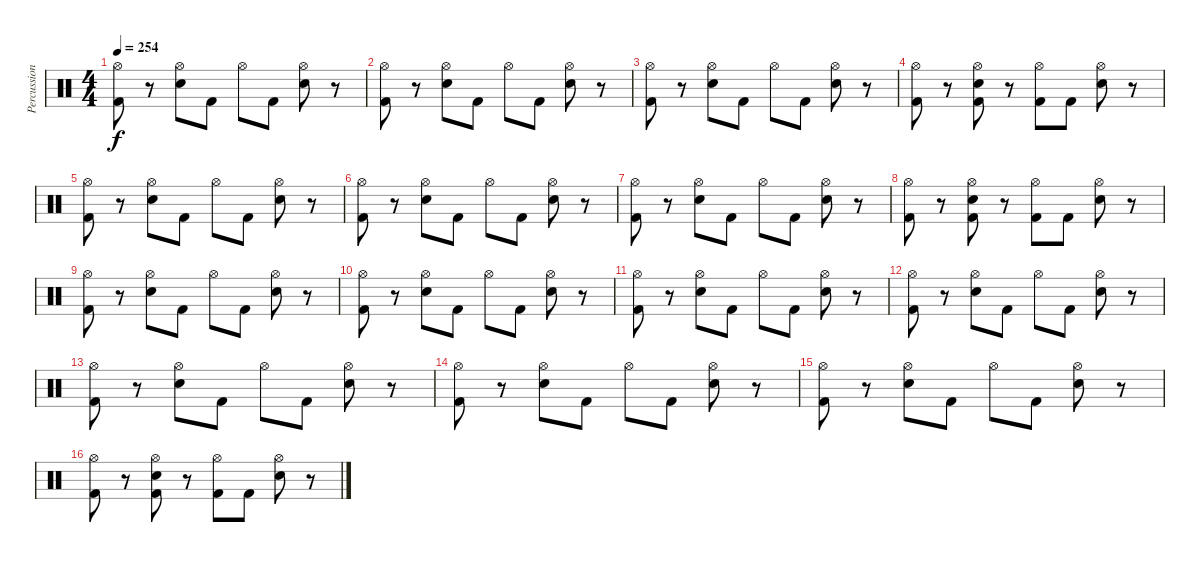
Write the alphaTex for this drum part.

\track ("Percussion" "Percussion") {instrument percussion}
\staff {score}
\articulation defaults
\ts (4 4)
\tempo 254
\clef neutral
\ks c
("Hi-Hat (open)" "Kick (hit) 2").8{dy f} r.8 ("Hi-Hat (open)" "Electric Snare (hit)").8 "Kick (hit) 2".8 "Hi-Hat (open)".8 "Kick (hit) 2".8 ("Hi-Hat (open)" "Electric Snare (hit)").8 r.8 |
("Hi-Hat (open)" "Kick (hit) 2").8 r.8 ("Hi-Hat (open)" "Electric Snare (hit)").8 "Kick (hit) 2".8 "Hi-Hat (open)".8 "Kick (hit) 2".8 ("Hi-Hat (open)" "Electric Snare (hit)").8 r.8 |
("Hi-Hat (open)" "Kick (hit) 2").8 r.8 ("Hi-Hat (open)" "Electric Snare (hit)").8 "Kick (hit) 2".8 "Hi-Hat (open)".8 "Kick (hit) 2".8 ("Hi-Hat (open)" "Electric Snare (hit)").8 r.8 |
("Hi-Hat (open)" "Kick (hit) 2").8 r.8 ("Hi-Hat (open)" "Electric Snare (hit)" "Kick (hit) 2").8 r.8 ("Hi-Hat (open)" "Kick (hit) 2").8 "Kick (hit) 2".8 ("Hi-Hat (open)" "Electric Snare (hit)").8 r.8 |
("Hi-Hat (open)" "Kick (hit) 2").8 r.8 ("Hi-Hat (open)" "Electric Snare (hit)").8 "Kick (hit) 2".8 "Hi-Hat (open)".8 "Kick (hit) 2".8 ("Hi-Hat (open)" "Electric Snare (hit)").8 r.8 |
("Hi-Hat (open)" "Kick (hit) 2").8 r.8 ("Hi-Hat (open)" "Electric Snare (hit)").8 "Kick (hit) 2".8 "Hi-Hat (open)".8 "Kick (hit) 2".8 ("Hi-Hat (open)" "Electric Snare (hit)").8 r.8 |
("Hi-Hat (open)" "Kick (hit) 2").8 r.8 ("Hi-Hat (open)" "Electric Snare (hit)").8 "Kick (hit) 2".8 "Hi-Hat (open)".8 "Kick (hit) 2".8 ("Hi-Hat (open)" "Electric Snare (hit)").8 r.8 |
("Hi-Hat (open)" "Kick (hit) 2").8 r.8 ("Hi-Hat (open)" "Electric Snare (hit)" "Kick (hit) 2").8 r.8 ("Hi-Hat (open)" "Kick (hit) 2").8 "Kick (hit) 2".8 ("Hi-Hat (open)" "Electric Snare (hit)").8 r.8 |
("Hi-Hat (open)" "Kick (hit) 2").8 r.8 ("Hi-Hat (open)" "Electric Snare (hit)").8 "Kick (hit) 2".8 "Hi-Hat (open)".8 "Kick (hit) 2".8 ("Hi-Hat (open)" "Electric Snare (hit)").8 r.8 |
("Hi-Hat (open)" "Kick (hit) 2").8 r.8 ("Hi-Hat (open)" "Electric Snare (hit)").8 "Kick (hit) 2".8 "Hi-Hat (open)".8 "Kick (hit) 2".8 ("Hi-Hat (open)" "Electric Snare (hit)").8 r.8 |
("Hi-Hat (open)" "Kick (hit) 2").8 r.8 ("Hi-Hat (open)" "Electric Snare (hit)").8 "Kick (hit) 2".8 "Hi-Hat (open)".8 "Kick (hit) 2".8 ("Hi-Hat (open)" "Electric Snare (hit)").8 r.8 |
("Hi-Hat (open)" "Kick (hit) 2").8 r.8 ("Hi-Hat (open)" "Electric Snare (hit)").8 "Kick (hit) 2".8 "Hi-Hat (open)".8 "Kick (hit) 2".8 ("Hi-Hat (open)" "Electric Snare (hit)").8 r.8 |
("Hi-Hat (open)" "Kick (hit) 2").8 r.8 ("Hi-Hat (open)" "Electric Snare (hit)").8 "Kick (hit) 2".8 "Hi-Hat (open)".8 "Kick (hit) 2".8 ("Hi-Hat (open)" "Electric Snare (hit)").8 r.8 |
("Hi-Hat (open)" "Kick (hit) 2").8 r.8 ("Hi-Hat (open)" "Electric Snare (hit)").8 "Kick (hit) 2".8 "Hi-Hat (open)".8 "Kick (hit) 2".8 ("Hi-Hat (open)" "Electric Snare (hit)").8 r.8 |
("Hi-Hat (open)" "Kick (hit) 2").8 r.8 ("Hi-Hat (open)" "Electric Snare (hit)").8 "Kick (hit) 2".8 "Hi-Hat (open)".8 "Kick (hit) 2".8 ("Hi-Hat (open)" "Electric Snare (hit)").8 r.8 |
("Hi-Hat (open)" "Kick (hit) 2").8 r.8 ("Hi-Hat (open)" "Electric Snare (hit)" "Kick (hit) 2").8 r.8 ("Hi-Hat (open)" "Kick (hit) 2").8 "Kick (hit) 2".8 ("Hi-Hat (open)" "Electric Snare (hit)").8 r.8
